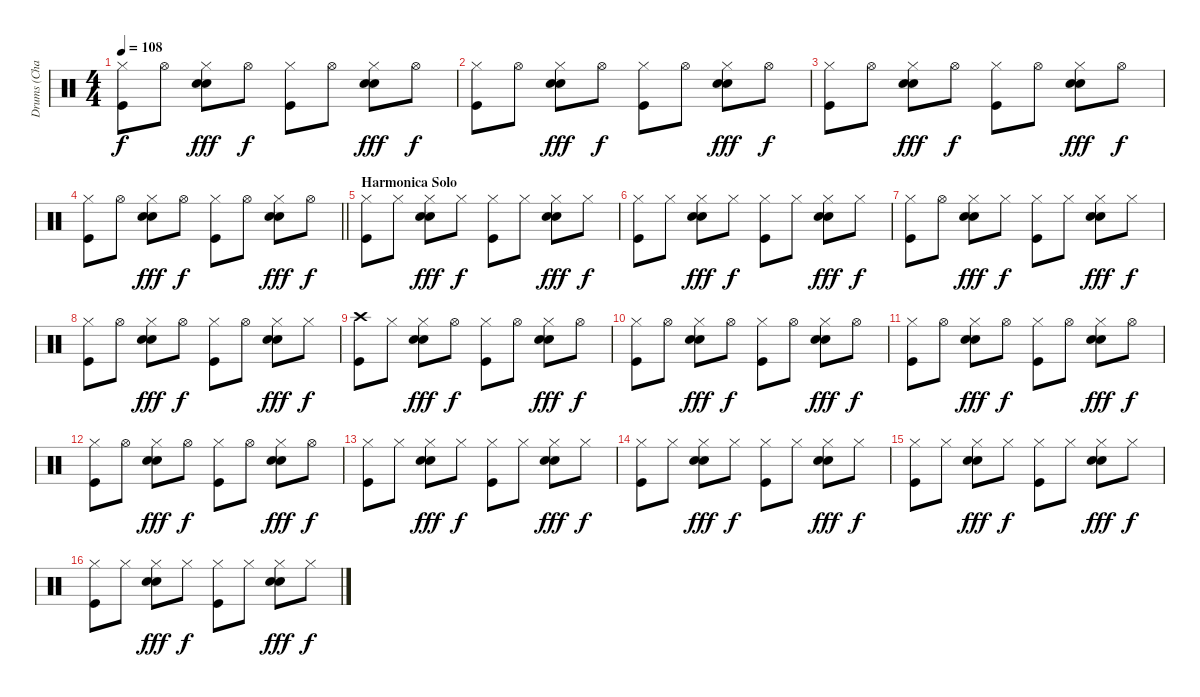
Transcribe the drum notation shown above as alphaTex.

\track ("Drums (Charlie)" "Drums (Cha") {instrument percussion}
\staff {score}
\articulation defaults
\ts (4 4)
\tempo 108
\clef neutral
\ks c
("Hi-Hat (closed)" "Kick (hit)").8{dy f} "Hi-Hat (open)".8 ("Hi-Hat (closed)" "Snare (hit) 2" "Electric Snare (hit)").8{dy fff} "Hi-Hat (open)".8{dy f} ("Hi-Hat (closed)" "Kick (hit)").8 "Hi-Hat (open)".8 ("Hi-Hat (closed)" "Snare (hit) 2" "Electric Snare (hit)").8{dy fff} "Hi-Hat (open)".8{dy f} |
("Hi-Hat (closed)" "Kick (hit)").8 "Hi-Hat (open)".8 ("Hi-Hat (closed)" "Snare (hit) 2" "Electric Snare (hit)").8{dy fff} "Hi-Hat (open)".8{dy f} ("Hi-Hat (closed)" "Kick (hit)").8 "Hi-Hat (open)".8 ("Hi-Hat (closed)" "Snare (hit) 2" "Electric Snare (hit)").8{dy fff} "Hi-Hat (open)".8{dy f} |
("Hi-Hat (closed)" "Kick (hit)").8 "Hi-Hat (open)".8 ("Hi-Hat (closed)" "Snare (hit) 2" "Electric Snare (hit)").8{dy fff} "Hi-Hat (open)".8{dy f} ("Hi-Hat (closed)" "Kick (hit)").8 "Hi-Hat (open)".8 ("Hi-Hat (closed)" "Snare (hit) 2" "Electric Snare (hit)").8{dy fff} "Hi-Hat (open)".8{dy f} |
\barLineRight lightlight
("Hi-Hat (closed)" "Kick (hit)").8 "Hi-Hat (open)".8 ("Hi-Hat (closed)" "Snare (hit) 2" "Electric Snare (hit)").8{dy fff} "Hi-Hat (open)".8{dy f} ("Hi-Hat (closed)" "Kick (hit)").8 "Hi-Hat (open)".8 ("Hi-Hat (closed)" "Snare (hit) 2" "Electric Snare (hit)").8{dy fff} "Hi-Hat (open)".8{dy f} |
\section ("" "Harmonica Solo")
("Hi-Hat (closed)" "Kick (hit)").8 "Hi-Hat (closed)".8 ("Hi-Hat (closed)" "Snare (hit) 2" "Electric Snare (hit)").8{dy fff} "Hi-Hat (closed)".8{dy f} ("Hi-Hat (closed)" "Kick (hit)").8 "Hi-Hat (closed)".8 ("Hi-Hat (closed)" "Snare (hit) 2" "Electric Snare (hit)").8{dy fff} "Hi-Hat (closed)".8{dy f} |
("Hi-Hat (closed)" "Kick (hit)").8 "Hi-Hat (closed)".8 ("Hi-Hat (closed)" "Snare (hit) 2" "Electric Snare (hit)").8{dy fff} "Hi-Hat (closed)".8{dy f} ("Hi-Hat (closed)" "Kick (hit)").8 "Hi-Hat (closed)".8 ("Hi-Hat (closed)" "Snare (hit) 2" "Electric Snare (hit)").8{dy fff} "Hi-Hat (closed)".8{dy f} |
("Hi-Hat (closed)" "Kick (hit)").8 "Hi-Hat (open)".8 ("Hi-Hat (closed)" "Snare (hit) 2" "Electric Snare (hit)").8{dy fff} "Hi-Hat (closed)".8{dy f} ("Hi-Hat (closed)" "Kick (hit)").8 "Hi-Hat (closed)".8 ("Hi-Hat (closed)" "Snare (hit) 2" "Electric Snare (hit)").8{dy fff} "Hi-Hat (closed)".8{dy f} |
("Hi-Hat (closed)" "Kick (hit)").8 "Hi-Hat (open)".8 ("Hi-Hat (closed)" "Snare (hit) 2" "Electric Snare (hit)").8{dy fff} "Hi-Hat (open)".8{dy f} ("Hi-Hat (closed)" "Kick (hit)").8 "Hi-Hat (open)".8 ("Hi-Hat (closed)" "Snare (hit) 2" "Electric Snare (hit)").8{dy fff} "Hi-Hat (closed)".8{dy f} |
("Crash high (hit)" "Kick (hit)").8 "Hi-Hat (closed)".8 ("Hi-Hat (closed)" "Snare (hit) 2" "Electric Snare (hit)").8{dy fff} "Hi-Hat (open)".8{dy f} ("Hi-Hat (closed)" "Kick (hit)").8 "Hi-Hat (open)".8 ("Hi-Hat (closed)" "Snare (hit) 2" "Electric Snare (hit)").8{dy fff} "Hi-Hat (open)".8{dy f} |
("Hi-Hat (closed)" "Kick (hit)").8 "Hi-Hat (open)".8 ("Hi-Hat (closed)" "Snare (hit) 2" "Electric Snare (hit)").8{dy fff} "Hi-Hat (open)".8{dy f} ("Hi-Hat (closed)" "Kick (hit)").8 "Hi-Hat (open)".8 ("Hi-Hat (closed)" "Snare (hit) 2" "Electric Snare (hit)").8{dy fff} "Hi-Hat (open)".8{dy f} |
("Hi-Hat (closed)" "Kick (hit)").8 "Hi-Hat (open)".8 ("Hi-Hat (closed)" "Snare (hit) 2" "Electric Snare (hit)").8{dy fff} "Hi-Hat (open)".8{dy f} ("Hi-Hat (closed)" "Kick (hit)").8 "Hi-Hat (open)".8 ("Hi-Hat (closed)" "Snare (hit) 2" "Electric Snare (hit)").8{dy fff} "Hi-Hat (open)".8{dy f} |
("Hi-Hat (closed)" "Kick (hit)").8 "Hi-Hat (open)".8 ("Hi-Hat (closed)" "Snare (hit) 2" "Electric Snare (hit)").8{dy fff} "Hi-Hat (open)".8{dy f} ("Hi-Hat (closed)" "Kick (hit)").8 "Hi-Hat (open)".8 ("Hi-Hat (closed)" "Snare (hit) 2" "Electric Snare (hit)").8{dy fff} "Hi-Hat (open)".8{dy f} |
("Hi-Hat (closed)" "Kick (hit)").8 "Hi-Hat (closed)".8 ("Hi-Hat (closed)" "Snare (hit) 2" "Electric Snare (hit)").8{dy fff} "Hi-Hat (closed)".8{dy f} ("Hi-Hat (closed)" "Kick (hit)").8 "Hi-Hat (closed)".8 ("Hi-Hat (closed)" "Snare (hit) 2" "Electric Snare (hit)").8{dy fff} "Hi-Hat (closed)".8{dy f} |
("Hi-Hat (closed)" "Kick (hit)").8 "Hi-Hat (closed)".8 ("Hi-Hat (closed)" "Snare (hit) 2" "Electric Snare (hit)").8{dy fff} "Hi-Hat (closed)".8{dy f} ("Hi-Hat (closed)" "Kick (hit)").8 "Hi-Hat (closed)".8 ("Hi-Hat (closed)" "Snare (hit) 2" "Electric Snare (hit)").8{dy fff} "Hi-Hat (closed)".8{dy f} |
("Hi-Hat (closed)" "Kick (hit)").8 "Hi-Hat (closed)".8 ("Hi-Hat (closed)" "Snare (hit) 2" "Electric Snare (hit)").8{dy fff} "Hi-Hat (closed)".8{dy f} ("Hi-Hat (closed)" "Kick (hit)").8 "Hi-Hat (closed)".8 ("Hi-Hat (closed)" "Snare (hit) 2" "Electric Snare (hit)").8{dy fff} "Hi-Hat (closed)".8{dy f} |
("Hi-Hat (closed)" "Kick (hit)").8 "Hi-Hat (closed)".8 ("Hi-Hat (closed)" "Snare (hit) 2" "Electric Snare (hit)").8{dy fff} "Hi-Hat (closed)".8{dy f} ("Hi-Hat (closed)" "Kick (hit)").8 "Hi-Hat (closed)".8 ("Hi-Hat (closed)" "Snare (hit) 2" "Electric Snare (hit)").8{dy fff} "Hi-Hat (closed)".8{dy f}
